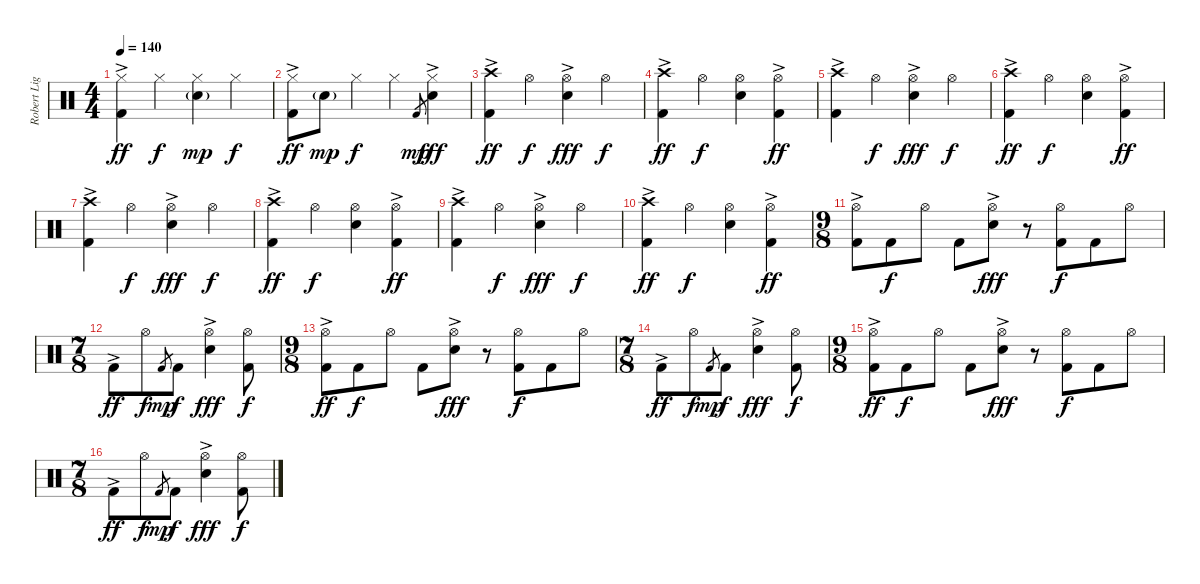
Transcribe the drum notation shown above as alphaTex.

\track ("Robert Ligiewicz (Perkusja)" "Robert Lig") {instrument percussion}
\staff {score}
\articulation defaults
\ts (4 4)
\tempo 140
\clef neutral
\ks c
("Hi-Hat (closed)" "Kick (hit) 2"{ac}).4{dy ff} "Hi-Hat (closed)".4{dy f} ("Hi-Hat (closed)" "Electric Snare (hit)"{g}).4{dy mp} "Hi-Hat (closed)".4{dy f} |
("Hi-Hat (closed)" "Kick (hit) 2"{ac}).8{dy ff} "Electric Snare (hit)"{g}.8{dy mp} "Hi-Hat (closed)".4{dy f} "Hi-Hat (closed)".4 "Kick (hit) 2".8{gr dy mp} ("Hi-Hat (closed)" "Electric Snare (hit)"{ac}).4{dy fff} |
("Crash high (hit)" "Kick (hit) 2"{ac}).4{dy ff} "Hi-Hat (open)".4{dy f} ("Hi-Hat (open)" "Electric Snare (hit)"{ac}).4{dy fff} "Hi-Hat (open)".4{dy f} |
("Crash high (hit)" "Kick (hit) 2"{ac}).4{dy ff} "Hi-Hat (open)".4{dy f} ("Hi-Hat (open)" "Electric Snare (hit)").4 ("Hi-Hat (open)" "Kick (hit) 2"{ac}).4{dy ff} |
("Crash high (hit)" "Kick (hit) 2"{ac}).4 "Hi-Hat (open)".4{dy f} ("Hi-Hat (open)" "Electric Snare (hit)"{ac}).4{dy fff} "Hi-Hat (open)".4{dy f} |
("Crash high (hit)" "Kick (hit) 2"{ac}).4{dy ff} "Hi-Hat (open)".4{dy f} ("Hi-Hat (open)" "Electric Snare (hit)").4 ("Hi-Hat (open)" "Kick (hit) 2"{ac}).4{dy ff} |
("Crash high (hit)" "Kick (hit) 2"{ac}).4 "Hi-Hat (open)".4{dy f} ("Hi-Hat (open)" "Electric Snare (hit)"{ac}).4{dy fff} "Hi-Hat (open)".4{dy f} |
("Crash high (hit)" "Kick (hit) 2"{ac}).4{dy ff} "Hi-Hat (open)".4{dy f} ("Hi-Hat (open)" "Electric Snare (hit)").4 ("Hi-Hat (open)" "Kick (hit) 2"{ac}).4{dy ff} |
("Crash high (hit)" "Kick (hit) 2"{ac}).4 "Hi-Hat (open)".4{dy f} ("Hi-Hat (open)" "Electric Snare (hit)"{ac}).4{dy fff} "Hi-Hat (open)".4{dy f} |
("Crash high (hit)" "Kick (hit) 2"{ac}).4{dy ff} "Hi-Hat (open)".4{dy f} ("Hi-Hat (open)" "Electric Snare (hit)").4 ("Hi-Hat (open)" "Kick (hit) 2"{ac}).4{dy ff} |
\ts (9 8)
("Hi-Hat (open)" "Kick (hit) 2"{ac}).8 "Kick (hit) 2".8{dy f} "Hi-Hat (open)".8 "Kick (hit) 2".8 ("Hi-Hat (open)" "Electric Snare (hit)"{ac}).8{dy fff} r.8 ("Hi-Hat (open)" "Kick (hit) 2").8{dy f} "Kick (hit) 2".8 "Hi-Hat (open)".8 |
\ts (7 8)
"Kick (hit) 2"{ac}.8{dy ff} "Hi-Hat (open)".8{dy f} "Kick (hit) 2".8{gr dy mp} "Kick (hit) 2".8{dy f} ("Hi-Hat (open)" "Electric Snare (hit)"{ac}).4{dy fff} ("Hi-Hat (open)" "Kick (hit) 2").8{dy f} |
\ts (9 8)
("Hi-Hat (open)" "Kick (hit) 2"{ac}).8{dy ff} "Kick (hit) 2".8{dy f} "Hi-Hat (open)".8 "Kick (hit) 2".8 ("Hi-Hat (open)" "Electric Snare (hit)"{ac}).8{dy fff} r.8 ("Hi-Hat (open)" "Kick (hit) 2").8{dy f} "Kick (hit) 2".8 "Hi-Hat (open)".8 |
\ts (7 8)
"Kick (hit) 2"{ac}.8{dy ff} "Hi-Hat (open)".8{dy f} "Kick (hit) 2".8{gr dy mp} "Kick (hit) 2".8{dy f} ("Hi-Hat (open)" "Electric Snare (hit)"{ac}).4{dy fff} ("Hi-Hat (open)" "Kick (hit) 2").8{dy f} |
\ts (9 8)
("Hi-Hat (open)" "Kick (hit) 2"{ac}).8{dy ff} "Kick (hit) 2".8{dy f} "Hi-Hat (open)".8 "Kick (hit) 2".8 ("Hi-Hat (open)" "Electric Snare (hit)"{ac}).8{dy fff} r.8 ("Hi-Hat (open)" "Kick (hit) 2").8{dy f} "Kick (hit) 2".8 "Hi-Hat (open)".8 |
\ts (7 8)
"Kick (hit) 2"{ac}.8{dy ff} "Hi-Hat (open)".8{dy f} "Kick (hit) 2".8{gr dy mp} "Kick (hit) 2".8{dy f} ("Hi-Hat (open)" "Electric Snare (hit)"{ac}).4{dy fff} ("Hi-Hat (open)" "Kick (hit) 2").8{dy f}
